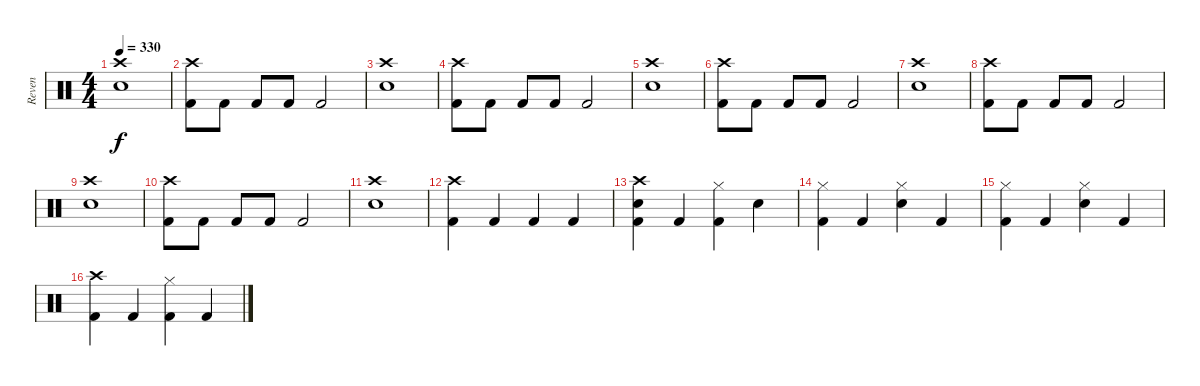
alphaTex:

\track ("Reven" "Reven") {instrument percussion}
\staff {score}
\articulation defaults
\ts (4 4)
\tempo 330
\clef neutral
\ks c
("Crash high (hit)" "Electric Snare (hit)").1{dy f} |
("Crash high (hit)" "Kick (hit) 2").8 "Kick (hit) 2".8 "Kick (hit) 2".8 "Kick (hit) 2".8 "Kick (hit) 2".2 |
("Crash high (hit)" "Electric Snare (hit)").1 |
("Crash high (hit)" "Kick (hit) 2").8 "Kick (hit) 2".8 "Kick (hit) 2".8 "Kick (hit) 2".8 "Kick (hit) 2".2 |
("Crash high (hit)" "Electric Snare (hit)").1 |
("Crash high (hit)" "Kick (hit) 2").8 "Kick (hit) 2".8 "Kick (hit) 2".8 "Kick (hit) 2".8 "Kick (hit) 2".2 |
("Crash high (hit)" "Electric Snare (hit)").1 |
("Crash high (hit)" "Kick (hit) 2").8 "Kick (hit) 2".8 "Kick (hit) 2".8 "Kick (hit) 2".8 "Kick (hit) 2".2 |
("Crash high (hit)" "Electric Snare (hit)").1 |
("Crash high (hit)" "Kick (hit) 2").8 "Kick (hit) 2".8 "Kick (hit) 2".8 "Kick (hit) 2".8 "Kick (hit) 2".2 |
("Crash high (hit)" "Electric Snare (hit)").1 |
("Crash high (hit)" "Kick (hit) 2").4 "Kick (hit) 2".4 "Kick (hit) 2".4 "Kick (hit) 2".4 |
("Crash high (hit)" "Electric Snare (hit)" "Kick (hit) 2").4 "Kick (hit) 2".4 ("Hi-Hat (closed)" "Kick (hit) 2").4 "Electric Snare (hit)".4 |
("Hi-Hat (closed)" "Kick (hit) 2").4 "Kick (hit) 2".4 ("Hi-Hat (closed)" "Electric Snare (hit)").4 "Kick (hit) 2".4 |
("Hi-Hat (closed)" "Kick (hit) 2").4 "Kick (hit) 2".4 ("Hi-Hat (closed)" "Electric Snare (hit)").4 "Kick (hit) 2".4 |
("Crash high (hit)" "Kick (hit) 2").4 "Kick (hit) 2".4 ("Hi-Hat (closed)" "Kick (hit) 2").4 "Kick (hit) 2".4
